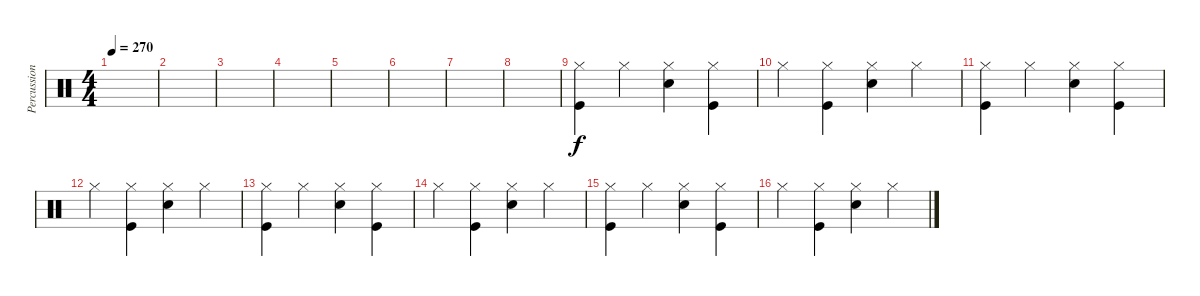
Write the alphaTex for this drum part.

\track ("Percussions" "Percussion") {instrument percussion}
\staff {score}
\articulation defaults
\ts (4 4)
\tempo 270
\clef neutral
\ks c
|
|
|
|
|
|
|
|
("Hi-Hat (closed)" "Kick (hit)").4 "Hi-Hat (closed)".4 ("Hi-Hat (closed)" "Snare (hit) 2").4 ("Hi-Hat (closed)" "Kick (hit)").4 |
"Hi-Hat (closed)".4 ("Hi-Hat (closed)" "Kick (hit)").4 ("Hi-Hat (closed)" "Snare (hit) 2").4 "Hi-Hat (closed)".4 |
("Hi-Hat (closed)" "Kick (hit)").4 "Hi-Hat (closed)".4 ("Hi-Hat (closed)" "Snare (hit) 2").4 ("Hi-Hat (closed)" "Kick (hit)").4 |
"Hi-Hat (closed)".4 ("Hi-Hat (closed)" "Kick (hit)").4 ("Hi-Hat (closed)" "Snare (hit) 2").4 "Hi-Hat (closed)".4 |
("Hi-Hat (closed)" "Kick (hit)").4 "Hi-Hat (closed)".4 ("Hi-Hat (closed)" "Snare (hit) 2").4 ("Hi-Hat (closed)" "Kick (hit)").4 |
"Hi-Hat (closed)".4 ("Hi-Hat (closed)" "Kick (hit)").4 ("Hi-Hat (closed)" "Snare (hit) 2").4 "Hi-Hat (closed)".4 |
("Hi-Hat (closed)" "Kick (hit)").4 "Hi-Hat (closed)".4 ("Hi-Hat (closed)" "Snare (hit) 2").4 ("Hi-Hat (closed)" "Kick (hit)").4 |
"Hi-Hat (closed)".4 ("Hi-Hat (closed)" "Kick (hit)").4 ("Hi-Hat (closed)" "Snare (hit) 2").4 "Hi-Hat (closed)".4
